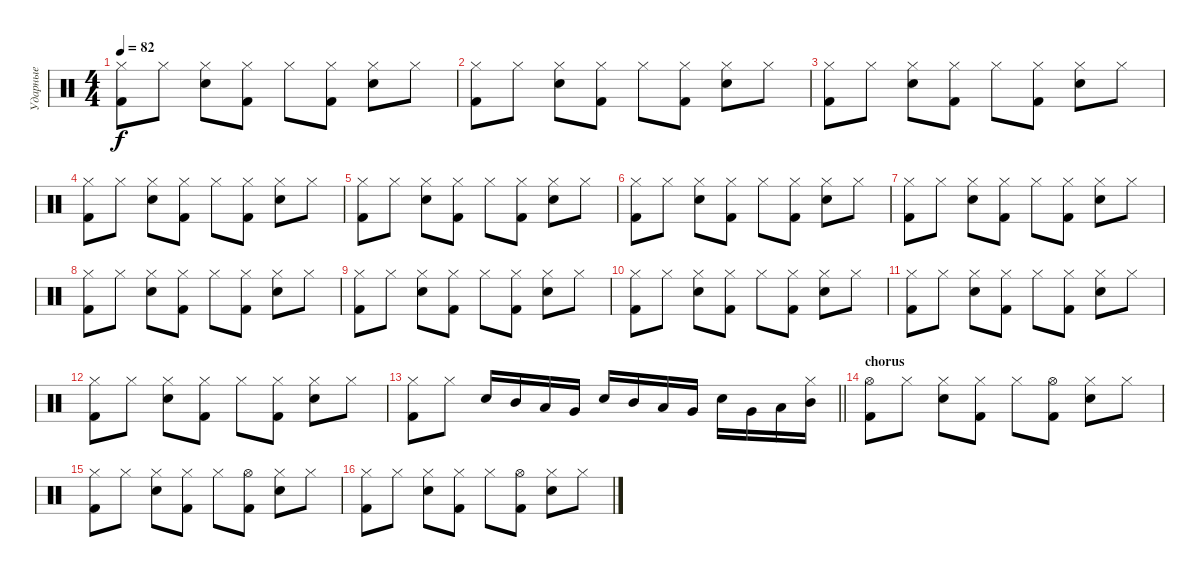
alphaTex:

\track ("Ударные" "Ударные") {instrument percussion}
\staff {score}
\articulation defaults
\ts (4 4)
\tempo 82
\clef neutral
\ks c
("Hi-Hat (closed)" "Kick (hit) 2").8{dy f} "Hi-Hat (closed)".8 ("Hi-Hat (closed)" "Electric Snare (hit)").8 ("Hi-Hat (closed)" "Kick (hit) 2").8 "Hi-Hat (closed)".8 ("Hi-Hat (closed)" "Kick (hit) 2").8 ("Hi-Hat (closed)" "Electric Snare (hit)").8 "Hi-Hat (closed)".8 |
("Hi-Hat (closed)" "Kick (hit) 2").8 "Hi-Hat (closed)".8 ("Hi-Hat (closed)" "Electric Snare (hit)").8 ("Hi-Hat (closed)" "Kick (hit) 2").8 "Hi-Hat (closed)".8 ("Hi-Hat (closed)" "Kick (hit) 2").8 ("Hi-Hat (closed)" "Electric Snare (hit)").8 "Hi-Hat (closed)".8 |
("Hi-Hat (closed)" "Kick (hit) 2").8 "Hi-Hat (closed)".8 ("Hi-Hat (closed)" "Electric Snare (hit)").8 ("Hi-Hat (closed)" "Kick (hit) 2").8 "Hi-Hat (closed)".8 ("Hi-Hat (closed)" "Kick (hit) 2").8 ("Hi-Hat (closed)" "Electric Snare (hit)").8 "Hi-Hat (closed)".8 |
("Hi-Hat (closed)" "Kick (hit) 2").8 "Hi-Hat (closed)".8 ("Hi-Hat (closed)" "Electric Snare (hit)").8 ("Hi-Hat (closed)" "Kick (hit) 2").8 "Hi-Hat (closed)".8 ("Hi-Hat (closed)" "Kick (hit) 2").8 ("Hi-Hat (closed)" "Electric Snare (hit)").8 "Hi-Hat (closed)".8 |
("Hi-Hat (closed)" "Kick (hit) 2").8 "Hi-Hat (closed)".8 ("Hi-Hat (closed)" "Electric Snare (hit)").8 ("Hi-Hat (closed)" "Kick (hit) 2").8 "Hi-Hat (closed)".8 ("Hi-Hat (closed)" "Kick (hit) 2").8 ("Hi-Hat (closed)" "Electric Snare (hit)").8 "Hi-Hat (closed)".8 |
("Hi-Hat (closed)" "Kick (hit) 2").8 "Hi-Hat (closed)".8 ("Hi-Hat (closed)" "Electric Snare (hit)").8 ("Hi-Hat (closed)" "Kick (hit) 2").8 "Hi-Hat (closed)".8 ("Hi-Hat (closed)" "Kick (hit) 2").8 ("Hi-Hat (closed)" "Electric Snare (hit)").8 "Hi-Hat (closed)".8 |
("Hi-Hat (closed)" "Kick (hit) 2").8 "Hi-Hat (closed)".8 ("Hi-Hat (closed)" "Electric Snare (hit)").8 ("Hi-Hat (closed)" "Kick (hit) 2").8 "Hi-Hat (closed)".8 ("Hi-Hat (closed)" "Kick (hit) 2").8 ("Hi-Hat (closed)" "Electric Snare (hit)").8 "Hi-Hat (closed)".8 |
("Hi-Hat (closed)" "Kick (hit) 2").8 "Hi-Hat (closed)".8 ("Hi-Hat (closed)" "Electric Snare (hit)").8 ("Hi-Hat (closed)" "Kick (hit) 2").8 "Hi-Hat (closed)".8 ("Hi-Hat (closed)" "Kick (hit) 2").8 ("Hi-Hat (closed)" "Electric Snare (hit)").8 "Hi-Hat (closed)".8 |
("Hi-Hat (closed)" "Kick (hit) 2").8 "Hi-Hat (closed)".8 ("Hi-Hat (closed)" "Electric Snare (hit)").8 ("Hi-Hat (closed)" "Kick (hit) 2").8 "Hi-Hat (closed)".8 ("Hi-Hat (closed)" "Kick (hit) 2").8 ("Hi-Hat (closed)" "Electric Snare (hit)").8 "Hi-Hat (closed)".8 |
("Hi-Hat (closed)" "Kick (hit) 2").8 "Hi-Hat (closed)".8 ("Hi-Hat (closed)" "Electric Snare (hit)").8 ("Hi-Hat (closed)" "Kick (hit) 2").8 "Hi-Hat (closed)".8 ("Hi-Hat (closed)" "Kick (hit) 2").8 ("Hi-Hat (closed)" "Electric Snare (hit)").8 "Hi-Hat (closed)".8 |
("Hi-Hat (closed)" "Kick (hit) 2").8 "Hi-Hat (closed)".8 ("Hi-Hat (closed)" "Electric Snare (hit)").8 ("Hi-Hat (closed)" "Kick (hit) 2").8 "Hi-Hat (closed)".8 ("Hi-Hat (closed)" "Kick (hit) 2").8 ("Hi-Hat (closed)" "Electric Snare (hit)").8 "Hi-Hat (closed)".8 |
("Hi-Hat (closed)" "Kick (hit) 2").8 "Hi-Hat (closed)".8 ("Hi-Hat (closed)" "Electric Snare (hit)").8 ("Hi-Hat (closed)" "Kick (hit) 2").8 "Hi-Hat (closed)".8 ("Hi-Hat (closed)" "Kick (hit) 2").8 ("Hi-Hat (closed)" "Electric Snare (hit)").8 "Hi-Hat (closed)".8 |
\barLineRight lightlight
("Hi-Hat (closed)" "Kick (hit) 2").8 "Hi-Hat (closed)".8 "Electric Snare (hit)".16 "Mid Tom (hit)".16 "Low Tom (hit)".16 "Very Low Tom (hit)".16 "Electric Snare (hit)".16 "Mid Tom (hit)".16 "Low Tom (hit)".16 "Very Low Tom (hit)".16 "Electric Snare (hit)".16 "Very Low Tom (hit)".16 "Low Tom (hit)".16 ("Mid Tom (hit)" "Hi-Hat (closed)").16 |
\section ("" "chorus")
("Hi-Hat (open)" "Kick (hit) 2").8 "Hi-Hat (closed)".8 ("Hi-Hat (closed)" "Electric Snare (hit)").8 ("Hi-Hat (closed)" "Kick (hit) 2").8 "Hi-Hat (closed)".8 ("Hi-Hat (open)" "Kick (hit) 2").8 ("Hi-Hat (closed)" "Electric Snare (hit)").8 "Hi-Hat (closed)".8 |
("Hi-Hat (closed)" "Kick (hit) 2").8 "Hi-Hat (closed)".8 ("Hi-Hat (closed)" "Electric Snare (hit)").8 ("Hi-Hat (closed)" "Kick (hit) 2").8 "Hi-Hat (closed)".8 ("Hi-Hat (open)" "Kick (hit) 2").8 ("Hi-Hat (closed)" "Electric Snare (hit)").8 "Hi-Hat (closed)".8 |
("Hi-Hat (closed)" "Kick (hit) 2").8 "Hi-Hat (closed)".8 ("Hi-Hat (closed)" "Electric Snare (hit)").8 ("Hi-Hat (closed)" "Kick (hit) 2").8 "Hi-Hat (closed)".8 ("Hi-Hat (open)" "Kick (hit) 2").8 ("Hi-Hat (closed)" "Electric Snare (hit)").8 "Hi-Hat (closed)".8
